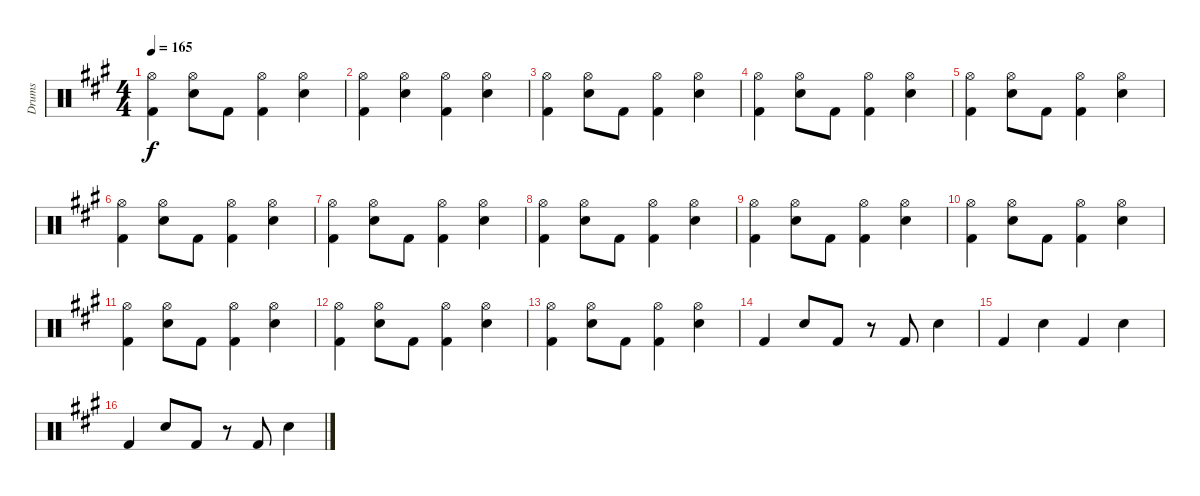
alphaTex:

\track ("Drums" "Drums") {instrument percussion}
\staff {score}
\articulation defaults
\ts (4 4)
\tempo 165
\clef neutral
\ks a
("Hi-Hat (open)" "Kick (hit) 2").4{dy f} ("Hi-Hat (open)" "Electric Snare (hit)").8 "Kick (hit) 2".8 ("Hi-Hat (open)" "Kick (hit) 2").4 ("Hi-Hat (open)" "Electric Snare (hit)").4 |
("Hi-Hat (open)" "Kick (hit) 2").4 ("Hi-Hat (open)" "Electric Snare (hit)").4 ("Hi-Hat (open)" "Kick (hit) 2").4 ("Hi-Hat (open)" "Electric Snare (hit)").4 |
("Hi-Hat (open)" "Kick (hit) 2").4 ("Hi-Hat (open)" "Electric Snare (hit)").8 "Kick (hit) 2".8 ("Hi-Hat (open)" "Kick (hit) 2").4 ("Hi-Hat (open)" "Electric Snare (hit)").4 |
("Hi-Hat (open)" "Kick (hit) 2").4 ("Hi-Hat (open)" "Electric Snare (hit)").8 "Kick (hit) 2".8 ("Hi-Hat (open)" "Kick (hit) 2").4 ("Hi-Hat (open)" "Electric Snare (hit)").4 |
("Hi-Hat (open)" "Kick (hit) 2").4 ("Hi-Hat (open)" "Electric Snare (hit)").8 "Kick (hit) 2".8 ("Hi-Hat (open)" "Kick (hit) 2").4 ("Hi-Hat (open)" "Electric Snare (hit)").4 |
("Hi-Hat (open)" "Kick (hit) 2").4 ("Hi-Hat (open)" "Electric Snare (hit)").8 "Kick (hit) 2".8 ("Hi-Hat (open)" "Kick (hit) 2").4 ("Hi-Hat (open)" "Electric Snare (hit)").4 |
("Hi-Hat (open)" "Kick (hit) 2").4 ("Hi-Hat (open)" "Electric Snare (hit)").8 "Kick (hit) 2".8 ("Hi-Hat (open)" "Kick (hit) 2").4 ("Hi-Hat (open)" "Electric Snare (hit)").4 |
("Hi-Hat (open)" "Kick (hit) 2").4 ("Hi-Hat (open)" "Electric Snare (hit)").8 "Kick (hit) 2".8 ("Hi-Hat (open)" "Kick (hit) 2").4 ("Hi-Hat (open)" "Electric Snare (hit)").4 |
("Hi-Hat (open)" "Kick (hit) 2").4 ("Hi-Hat (open)" "Electric Snare (hit)").8 "Kick (hit) 2".8 ("Hi-Hat (open)" "Kick (hit) 2").4 ("Hi-Hat (open)" "Electric Snare (hit)").4 |
("Hi-Hat (open)" "Kick (hit) 2").4 ("Hi-Hat (open)" "Electric Snare (hit)").8 "Kick (hit) 2".8 ("Hi-Hat (open)" "Kick (hit) 2").4 ("Hi-Hat (open)" "Electric Snare (hit)").4 |
("Hi-Hat (open)" "Kick (hit) 2").4 ("Hi-Hat (open)" "Electric Snare (hit)").8 "Kick (hit) 2".8 ("Hi-Hat (open)" "Kick (hit) 2").4 ("Hi-Hat (open)" "Electric Snare (hit)").4 |
("Hi-Hat (open)" "Kick (hit) 2").4 ("Hi-Hat (open)" "Electric Snare (hit)").8 "Kick (hit) 2".8 ("Hi-Hat (open)" "Kick (hit) 2").4 ("Hi-Hat (open)" "Electric Snare (hit)").4 |
("Hi-Hat (open)" "Kick (hit) 2").4 ("Hi-Hat (open)" "Electric Snare (hit)").8 "Kick (hit) 2".8 ("Hi-Hat (open)" "Kick (hit) 2").4 ("Hi-Hat (open)" "Electric Snare (hit)").4 |
"Kick (hit) 2".4 "Electric Snare (hit)".8 "Kick (hit) 2".8 r.8 "Kick (hit) 2".8 "Electric Snare (hit)".4 |
"Kick (hit) 2".4 "Electric Snare (hit)".4 "Kick (hit) 2".4 "Electric Snare (hit)".4 |
"Kick (hit) 2".4 "Electric Snare (hit)".8 "Kick (hit) 2".8 r.8 "Kick (hit) 2".8 "Electric Snare (hit)".4
